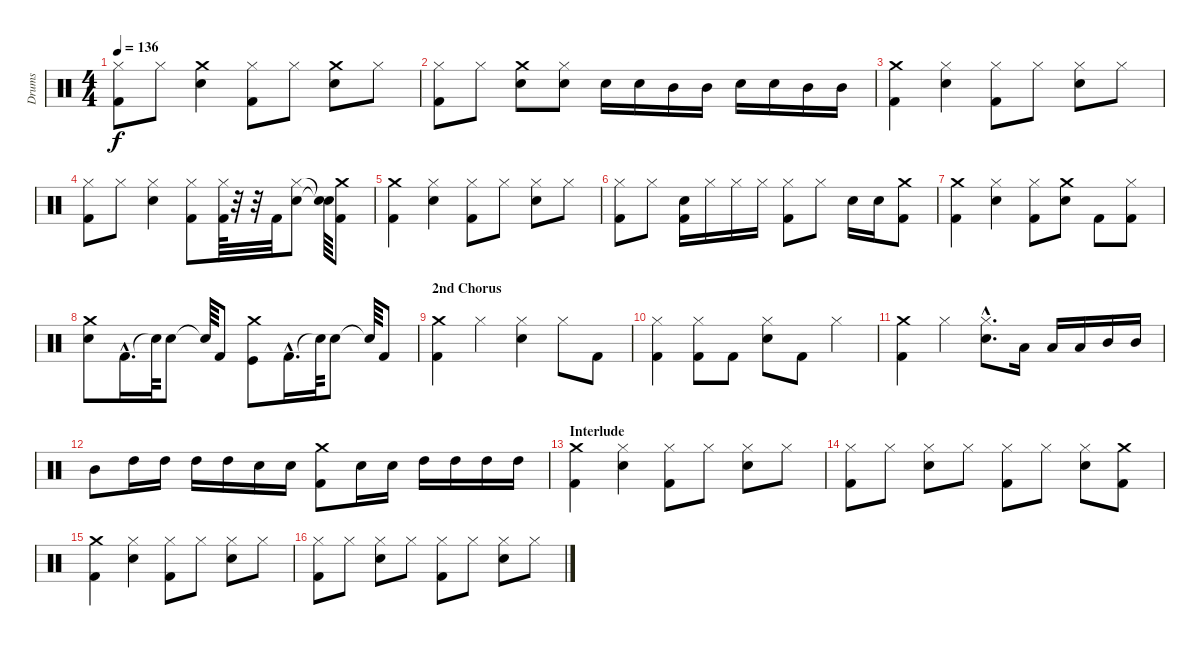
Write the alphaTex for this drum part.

\track ("Drums" "Drums") {instrument percussion}
\staff {score}
\articulation defaults
\ts (4 4)
\tempo 136
\clef neutral
\ks c
("Kick (hit) 2" "Hi-Hat (closed)").8{dy f} "Hi-Hat (closed)".8 ("Crash medium (hit)" "Snare (hit) 2").4 ("Kick (hit) 2" "Hi-Hat (closed)").8 "Hi-Hat (closed)".8 ("Snare (hit) 2" "Crash medium (hit)").8 "Hi-Hat (closed)".8 |
("Hi-Hat (closed)" "Kick (hit) 2").8 "Hi-Hat (closed)".8 ("Crash medium (hit)" "Snare (hit) 2").8 ("Snare (hit) 2" "Hi-Hat (closed)").8 "Snare (hit) 2".16 "Snare (hit) 2".16 "Mid Tom (hit)".16 "Mid Tom (hit)".16 "Snare (hit) 2".16 "Snare (hit) 2".16 "Mid Tom (hit)".16 "Mid Tom (hit)".16 |
("Kick (hit) 2" "Crash medium (hit)").4 ("Hi-Hat (closed)" "Snare (hit) 2").4 ("Hi-Hat (closed)" "Kick (hit) 2").8 "Hi-Hat (closed)".8 ("Hi-Hat (closed)" "Snare (hit) 2").8 "Hi-Hat (closed)".8 |
("Kick (hit) 2" "Hi-Hat (closed)").8 "Hi-Hat (closed)".8 ("Hi-Hat (closed)" "Snare (hit) 2").4 ("Kick (hit) 2" "Hi-Hat (closed)").8 ("Kick (hit) 2" "Hi-Hat (closed)").64 r.32 r.32 "Kick (hit) 2".32 ("Snare (hit) 2" "Hi-Hat (closed)").8 ("Snare (hit)"{t} "Snare (hit)"{t}).64 ("Kick (hit) 2" "Crash medium (hit)").8 |
("Kick (hit) 2" "Crash medium (hit)").4 ("Snare (hit) 2" "Hi-Hat (closed)").4 ("Kick (hit) 2" "Hi-Hat (closed)").8 "Hi-Hat (closed)".8 ("Snare (hit) 2" "Hi-Hat (closed)").8 "Hi-Hat (closed)".8 |
("Kick (hit) 2" "Hi-Hat (closed)").8 "Hi-Hat (closed)".8 ("Kick (hit) 2" "Snare (hit) 2").16 "Hi-Hat (closed)".16 "Hi-Hat (closed)".16 "Hi-Hat (closed)".16 ("Kick (hit) 2" "Hi-Hat (closed)").8 "Hi-Hat (closed)".8 "Snare (hit) 2".16 "Snare (hit) 2".16 ("Crash medium (hit)" "Kick (hit) 2").8 |
("Crash medium (hit)" "Kick (hit) 2").4 ("Hi-Hat (closed)" "Snare (hit) 2").4 ("Hi-Hat (closed)" "Kick (hit) 2").8 ("Crash medium (hit)" "Snare (hit) 2").8 "Kick (hit) 2".8 ("Hi-Hat (closed)" "Kick (hit) 2").8 |
("Crash medium (hit)" "Snare (hit) 2").8 "Kick (hit) 2"{hac}.16{d} "Snare (hit)"{t}.64 "Snare (hit) 2".8 "Snare (hit)"{t}.64 "Kick (hit) 2".8 ("Crash medium (hit)" "Kick (hit)").8 "Kick (hit) 2"{hac}.16{d} "Snare (hit)"{t}.64 "Snare (hit) 2".8 "Snare (hit)"{t}.64 "Kick (hit) 2".8 |
\section ("" "2nd Chorus")
("Kick (hit) 2" "Crash medium (hit)").4 "Hi-Hat (closed)".4 ("Snare (hit) 2" "Hi-Hat (closed)").4 "Hi-Hat (closed)".8 "Kick (hit) 2".8 |
("Hi-Hat (closed)" "Kick (hit) 2").4 ("Hi-Hat (closed)" "Kick (hit) 2").8 "Kick (hit) 2".8 ("Snare (hit) 2" "Hi-Hat (closed)").8 "Kick (hit) 2".8 "Hi-Hat (closed)".4 |
("Crash medium (hit)" "Kick (hit) 2").4 "Hi-Hat (closed)".4 ("Hi-Hat (closed)"{hac} "Snare (hit) 2"{hac}).8{d} "Low Tom (hit)".16 "Low Tom (hit)".16 "Low Tom (hit)".16 "Mid Tom (hit)".16 "Mid Tom (hit)".16 |
"Mid Tom (hit)".8 "High Tom (hit)".16 "High Tom (hit)".16 "High Tom (hit)".16 "High Tom (hit)".16 "Snare (hit) 2".16 "Snare (hit) 2".16 ("Crash medium (hit)" "Kick (hit) 2").8 "Snare (hit) 2".16 "Snare (hit) 2".16 "High Tom (hit)".16 "High Tom (hit)".16 "High Tom (hit)".16 "High Tom (hit)".16 |
\section ("" "Interlude")
("Kick (hit) 2" "Crash medium (hit)").4 ("Hi-Hat (closed)" "Snare (hit) 2").4 ("Hi-Hat (closed)" "Kick (hit) 2").8 "Hi-Hat (closed)".8 ("Snare (hit) 2" "Hi-Hat (closed)").8 "Hi-Hat (closed)".8 |
("Kick (hit) 2" "Hi-Hat (closed)").8 "Hi-Hat (closed)".8 ("Snare (hit) 2" "Hi-Hat (closed)").8 "Hi-Hat (closed)".8 ("Kick (hit) 2" "Hi-Hat (closed)").8 "Hi-Hat (closed)".8 ("Snare (hit) 2" "Hi-Hat (closed)").8 ("Kick (hit) 2" "Crash medium (hit)").8 |
("Crash medium (hit)" "Kick (hit) 2").4 ("Hi-Hat (closed)" "Snare (hit) 2").4 ("Hi-Hat (closed)" "Kick (hit) 2").8 "Hi-Hat (closed)".8 ("Snare (hit) 2" "Hi-Hat (closed)").8 "Hi-Hat (closed)".8 |
("Hi-Hat (closed)" "Kick (hit) 2").8 "Hi-Hat (closed)".8 ("Snare (hit) 2" "Hi-Hat (closed)").8 "Hi-Hat (closed)".8 ("Hi-Hat (closed)" "Kick (hit) 2").8 "Hi-Hat (closed)".8 ("Snare (hit) 2" "Hi-Hat (closed)").8 "Hi-Hat (closed)".8
